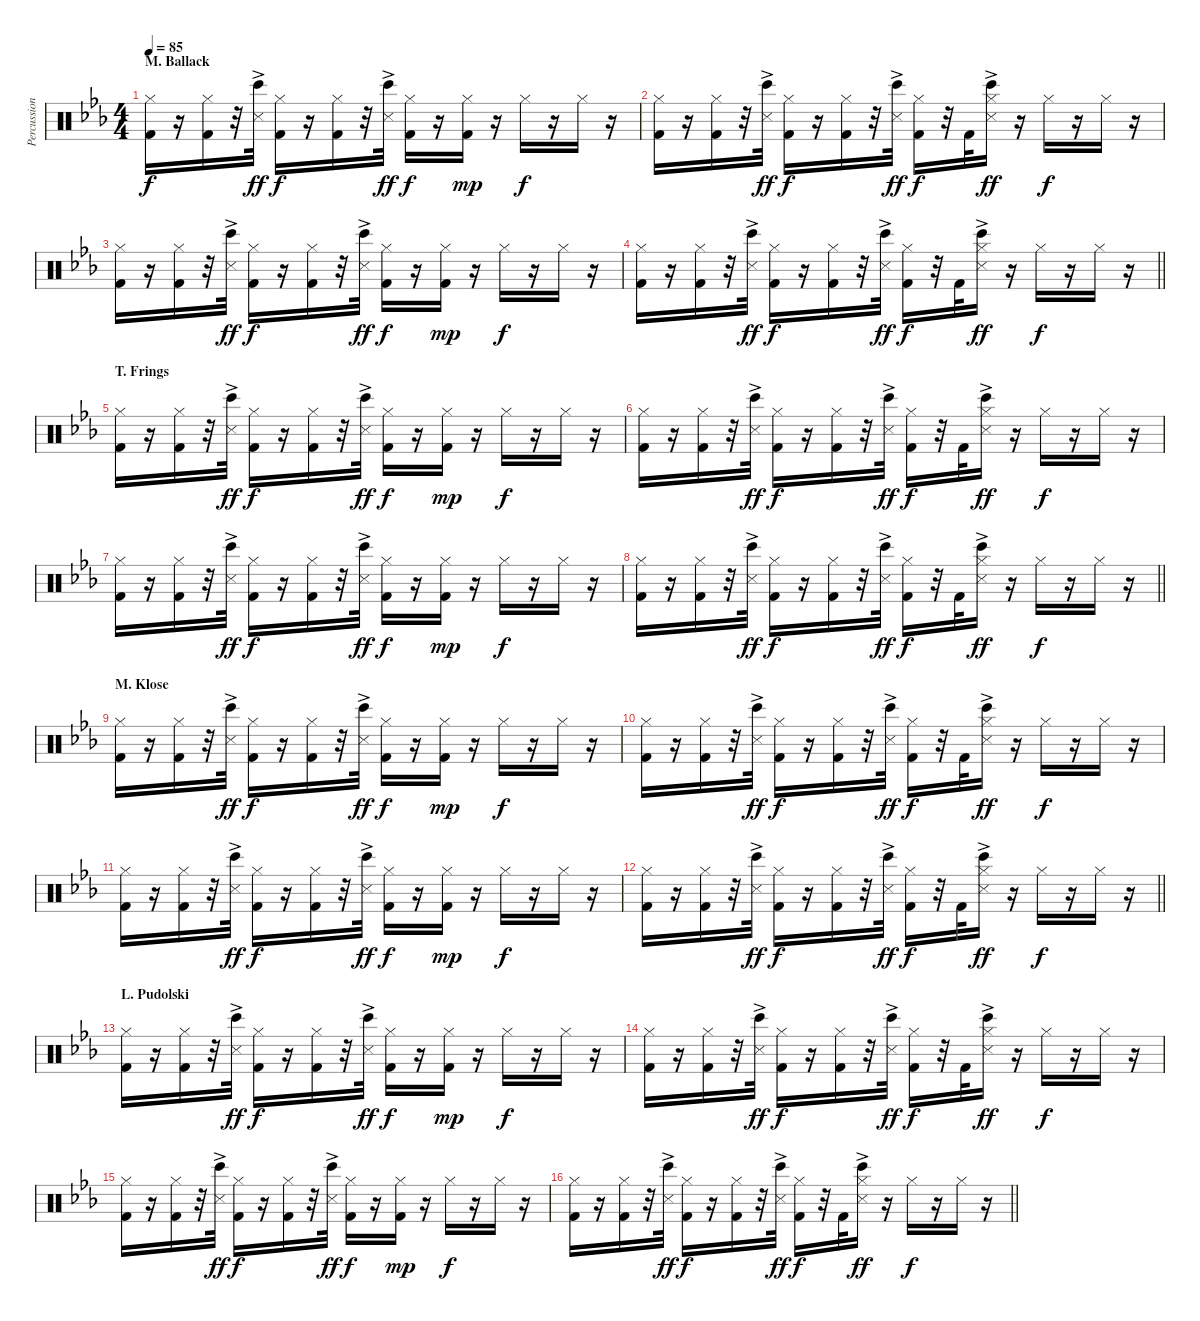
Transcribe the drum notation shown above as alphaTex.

\track ("Percussion" "Percussion") {instrument percussion}
\staff {score}
\articulation defaults
\ts (4 4)
\section ("" "M. Ballack")
\tempo 85
\clef neutral
\ks cminor
("Hi-Hat (closed)" "Kick (hit) 2").16{dy f} r.16 ("Hi-Hat (closed)" "Kick (hit) 2").16 r.32 ("Bongo High (hit)" "Metronome (hit)"{ac}).32{dy ff} ("Hi-Hat (closed)" "Kick (hit) 2").16{dy f} r.16 ("Hi-Hat (closed)" "Kick (hit) 2").16 r.32 ("Bongo High (hit)" "Metronome (hit)"{ac}).32{dy ff} ("Hi-Hat (closed)" "Kick (hit) 2").16{dy f} r.16 ("Hi-Hat (closed)" "Kick (hit) 2").16{dy mp} r.16 "Hi-Hat (closed)".16{dy f} r.16 "Hi-Hat (closed)".16 r.16 |
("Hi-Hat (closed)" "Kick (hit) 2").16 r.16 ("Hi-Hat (closed)" "Kick (hit) 2").16 r.32 ("Bongo High (hit)" "Metronome (hit)"{ac}).32{dy ff} ("Hi-Hat (closed)" "Kick (hit) 2").16{dy f} r.16 ("Hi-Hat (closed)" "Kick (hit) 2").16 r.32 ("Bongo High (hit)" "Metronome (hit)"{ac}).32{dy ff} ("Hi-Hat (closed)" "Kick (hit) 2").16{dy f} r.32 "Kick (hit) 2".32 ("Hi-Hat (closed)" "Bongo High (hit)" "Metronome (hit)"{ac}).16{dy ff} r.16 "Hi-Hat (closed)".16{dy f} r.16 "Hi-Hat (closed)".16 r.16 |
("Hi-Hat (closed)" "Kick (hit) 2").16 r.16 ("Hi-Hat (closed)" "Kick (hit) 2").16 r.32 ("Bongo High (hit)" "Metronome (hit)"{ac}).32{dy ff} ("Hi-Hat (closed)" "Kick (hit) 2").16{dy f} r.16 ("Hi-Hat (closed)" "Kick (hit) 2").16 r.32 ("Bongo High (hit)" "Metronome (hit)"{ac}).32{dy ff} ("Hi-Hat (closed)" "Kick (hit) 2").16{dy f} r.16 ("Hi-Hat (closed)" "Kick (hit) 2").16{dy mp} r.16 "Hi-Hat (closed)".16{dy f} r.16 "Hi-Hat (closed)".16 r.16 |
\barLineRight lightlight
("Hi-Hat (closed)" "Kick (hit) 2").16 r.16 ("Hi-Hat (closed)" "Kick (hit) 2").16 r.32 ("Bongo High (hit)" "Metronome (hit)"{ac}).32{dy ff} ("Hi-Hat (closed)" "Kick (hit) 2").16{dy f} r.16 ("Hi-Hat (closed)" "Kick (hit) 2").16 r.32 ("Bongo High (hit)" "Metronome (hit)"{ac}).32{dy ff} ("Hi-Hat (closed)" "Kick (hit) 2").16{dy f} r.32 "Kick (hit) 2".32 ("Hi-Hat (closed)" "Bongo High (hit)" "Metronome (hit)"{ac}).16{dy ff} r.16 "Hi-Hat (closed)".16{dy f} r.16 "Hi-Hat (closed)".16 r.16 |
\section ("" "T. Frings")
("Hi-Hat (closed)" "Kick (hit) 2").16 r.16 ("Hi-Hat (closed)" "Kick (hit) 2").16 r.32 ("Bongo High (hit)" "Metronome (hit)"{ac}).32{dy ff} ("Hi-Hat (closed)" "Kick (hit) 2").16{dy f} r.16 ("Hi-Hat (closed)" "Kick (hit) 2").16 r.32 ("Bongo High (hit)" "Metronome (hit)"{ac}).32{dy ff} ("Hi-Hat (closed)" "Kick (hit) 2").16{dy f} r.16 ("Hi-Hat (closed)" "Kick (hit) 2").16{dy mp} r.16 "Hi-Hat (closed)".16{dy f} r.16 "Hi-Hat (closed)".16 r.16 |
("Hi-Hat (closed)" "Kick (hit) 2").16 r.16 ("Hi-Hat (closed)" "Kick (hit) 2").16 r.32 ("Bongo High (hit)" "Metronome (hit)"{ac}).32{dy ff} ("Hi-Hat (closed)" "Kick (hit) 2").16{dy f} r.16 ("Hi-Hat (closed)" "Kick (hit) 2").16 r.32 ("Bongo High (hit)" "Metronome (hit)"{ac}).32{dy ff} ("Hi-Hat (closed)" "Kick (hit) 2").16{dy f} r.32 "Kick (hit) 2".32 ("Hi-Hat (closed)" "Bongo High (hit)" "Metronome (hit)"{ac}).16{dy ff} r.16 "Hi-Hat (closed)".16{dy f} r.16 "Hi-Hat (closed)".16 r.16 |
("Hi-Hat (closed)" "Kick (hit) 2").16 r.16 ("Hi-Hat (closed)" "Kick (hit) 2").16 r.32 ("Bongo High (hit)" "Metronome (hit)"{ac}).32{dy ff} ("Hi-Hat (closed)" "Kick (hit) 2").16{dy f} r.16 ("Hi-Hat (closed)" "Kick (hit) 2").16 r.32 ("Bongo High (hit)" "Metronome (hit)"{ac}).32{dy ff} ("Hi-Hat (closed)" "Kick (hit) 2").16{dy f} r.16 ("Hi-Hat (closed)" "Kick (hit) 2").16{dy mp} r.16 "Hi-Hat (closed)".16{dy f} r.16 "Hi-Hat (closed)".16 r.16 |
\barLineRight lightlight
("Hi-Hat (closed)" "Kick (hit) 2").16 r.16 ("Hi-Hat (closed)" "Kick (hit) 2").16 r.32 ("Bongo High (hit)" "Metronome (hit)"{ac}).32{dy ff} ("Hi-Hat (closed)" "Kick (hit) 2").16{dy f} r.16 ("Hi-Hat (closed)" "Kick (hit) 2").16 r.32 ("Bongo High (hit)" "Metronome (hit)"{ac}).32{dy ff} ("Hi-Hat (closed)" "Kick (hit) 2").16{dy f} r.32 "Kick (hit) 2".32 ("Hi-Hat (closed)" "Bongo High (hit)" "Metronome (hit)"{ac}).16{dy ff} r.16 "Hi-Hat (closed)".16{dy f} r.16 "Hi-Hat (closed)".16 r.16 |
\section ("" "M. Klose")
("Hi-Hat (closed)" "Kick (hit) 2").16 r.16 ("Hi-Hat (closed)" "Kick (hit) 2").16 r.32 ("Bongo High (hit)" "Metronome (hit)"{ac}).32{dy ff} ("Hi-Hat (closed)" "Kick (hit) 2").16{dy f} r.16 ("Hi-Hat (closed)" "Kick (hit) 2").16 r.32 ("Bongo High (hit)" "Metronome (hit)"{ac}).32{dy ff} ("Hi-Hat (closed)" "Kick (hit) 2").16{dy f} r.16 ("Hi-Hat (closed)" "Kick (hit) 2").16{dy mp} r.16 "Hi-Hat (closed)".16{dy f} r.16 "Hi-Hat (closed)".16 r.16 |
("Hi-Hat (closed)" "Kick (hit) 2").16 r.16 ("Hi-Hat (closed)" "Kick (hit) 2").16 r.32 ("Bongo High (hit)" "Metronome (hit)"{ac}).32{dy ff} ("Hi-Hat (closed)" "Kick (hit) 2").16{dy f} r.16 ("Hi-Hat (closed)" "Kick (hit) 2").16 r.32 ("Bongo High (hit)" "Metronome (hit)"{ac}).32{dy ff} ("Hi-Hat (closed)" "Kick (hit) 2").16{dy f} r.32 "Kick (hit) 2".32 ("Hi-Hat (closed)" "Bongo High (hit)" "Metronome (hit)"{ac}).16{dy ff} r.16 "Hi-Hat (closed)".16{dy f} r.16 "Hi-Hat (closed)".16 r.16 |
("Hi-Hat (closed)" "Kick (hit) 2").16 r.16 ("Hi-Hat (closed)" "Kick (hit) 2").16 r.32 ("Bongo High (hit)" "Metronome (hit)"{ac}).32{dy ff} ("Hi-Hat (closed)" "Kick (hit) 2").16{dy f} r.16 ("Hi-Hat (closed)" "Kick (hit) 2").16 r.32 ("Bongo High (hit)" "Metronome (hit)"{ac}).32{dy ff} ("Hi-Hat (closed)" "Kick (hit) 2").16{dy f} r.16 ("Hi-Hat (closed)" "Kick (hit) 2").16{dy mp} r.16 "Hi-Hat (closed)".16{dy f} r.16 "Hi-Hat (closed)".16 r.16 |
\barLineRight lightlight
("Hi-Hat (closed)" "Kick (hit) 2").16 r.16 ("Hi-Hat (closed)" "Kick (hit) 2").16 r.32 ("Bongo High (hit)" "Metronome (hit)"{ac}).32{dy ff} ("Hi-Hat (closed)" "Kick (hit) 2").16{dy f} r.16 ("Hi-Hat (closed)" "Kick (hit) 2").16 r.32 ("Bongo High (hit)" "Metronome (hit)"{ac}).32{dy ff} ("Hi-Hat (closed)" "Kick (hit) 2").16{dy f} r.32 "Kick (hit) 2".32 ("Hi-Hat (closed)" "Bongo High (hit)" "Metronome (hit)"{ac}).16{dy ff} r.16 "Hi-Hat (closed)".16{dy f} r.16 "Hi-Hat (closed)".16 r.16 |
\section ("" "L. Pudolski")
("Hi-Hat (closed)" "Kick (hit) 2").16 r.16 ("Hi-Hat (closed)" "Kick (hit) 2").16 r.32 ("Bongo High (hit)" "Metronome (hit)"{ac}).32{dy ff} ("Hi-Hat (closed)" "Kick (hit) 2").16{dy f} r.16 ("Hi-Hat (closed)" "Kick (hit) 2").16 r.32 ("Bongo High (hit)" "Metronome (hit)"{ac}).32{dy ff} ("Hi-Hat (closed)" "Kick (hit) 2").16{dy f} r.16 ("Hi-Hat (closed)" "Kick (hit) 2").16{dy mp} r.16 "Hi-Hat (closed)".16{dy f} r.16 "Hi-Hat (closed)".16 r.16 |
("Hi-Hat (closed)" "Kick (hit) 2").16 r.16 ("Hi-Hat (closed)" "Kick (hit) 2").16 r.32 ("Bongo High (hit)" "Metronome (hit)"{ac}).32{dy ff} ("Hi-Hat (closed)" "Kick (hit) 2").16{dy f} r.16 ("Hi-Hat (closed)" "Kick (hit) 2").16 r.32 ("Bongo High (hit)" "Metronome (hit)"{ac}).32{dy ff} ("Hi-Hat (closed)" "Kick (hit) 2").16{dy f} r.32 "Kick (hit) 2".32 ("Hi-Hat (closed)" "Bongo High (hit)" "Metronome (hit)"{ac}).16{dy ff} r.16 "Hi-Hat (closed)".16{dy f} r.16 "Hi-Hat (closed)".16 r.16 |
("Hi-Hat (closed)" "Kick (hit) 2").16 r.16 ("Hi-Hat (closed)" "Kick (hit) 2").16 r.32 ("Bongo High (hit)" "Metronome (hit)"{ac}).32{dy ff} ("Hi-Hat (closed)" "Kick (hit) 2").16{dy f} r.16 ("Hi-Hat (closed)" "Kick (hit) 2").16 r.32 ("Bongo High (hit)" "Metronome (hit)"{ac}).32{dy ff} ("Hi-Hat (closed)" "Kick (hit) 2").16{dy f} r.16 ("Hi-Hat (closed)" "Kick (hit) 2").16{dy mp} r.16 "Hi-Hat (closed)".16{dy f} r.16 "Hi-Hat (closed)".16 r.16 |
\barLineRight lightlight
("Hi-Hat (closed)" "Kick (hit) 2").16 r.16 ("Hi-Hat (closed)" "Kick (hit) 2").16 r.32 ("Bongo High (hit)" "Metronome (hit)"{ac}).32{dy ff} ("Hi-Hat (closed)" "Kick (hit) 2").16{dy f} r.16 ("Hi-Hat (closed)" "Kick (hit) 2").16 r.32 ("Bongo High (hit)" "Metronome (hit)"{ac}).32{dy ff} ("Hi-Hat (closed)" "Kick (hit) 2").16{dy f} r.32 "Kick (hit) 2".32 ("Hi-Hat (closed)" "Bongo High (hit)" "Metronome (hit)"{ac}).16{dy ff} r.16 "Hi-Hat (closed)".16{dy f} r.16 "Hi-Hat (closed)".16 r.16
